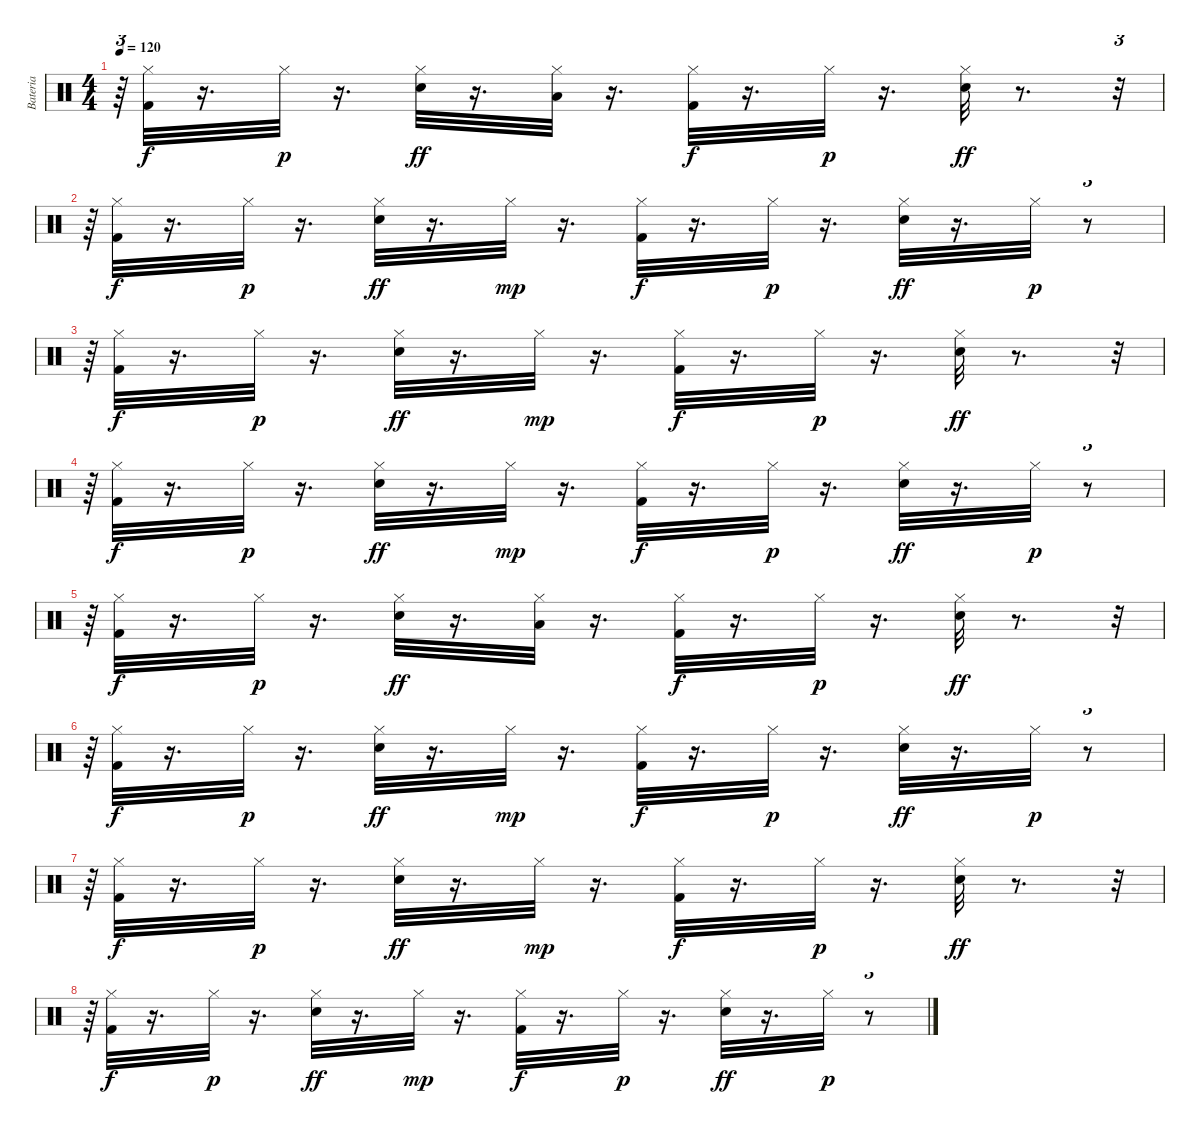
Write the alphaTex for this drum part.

\track ("Bateria" "Bateria") {instrument percussion}
\staff {score}
\articulation defaults
\ts (4 4)
\tempo 120
\clef neutral
\ks c
r.64{tu (3 2) dy p} ("Kick (hit) 2" "Hi-Hat (closed)").32{dy f} r.16{d} "Hi-Hat (closed)".32{dy p} r.16{d} ("Electric Snare (hit)" "Hi-Hat (closed)").32{dy ff} r.16{d} ("Hi-Hat (closed)" "Low Tom (hit)").32 r.16{d} ("Kick (hit) 2" "Hi-Hat (closed)").32{dy f} r.16{d} "Hi-Hat (closed)".32{dy p} r.16{d} ("Electric Snare (hit)" "Hi-Hat (closed)").32{dy ff} r.8{d} r.32{tu (3 2)} |
r.64{tu (3 2)} ("Kick (hit) 2" "Hi-Hat (closed)").32{dy f} r.16{d} "Hi-Hat (closed)".32{dy p} r.16{d} ("Electric Snare (hit)" "Hi-Hat (closed)").32{dy ff} r.16{d} "Hi-Hat (closed)".32{dy mp} r.16{d} ("Kick (hit) 2" "Hi-Hat (closed)").32{dy f} r.16{d} "Hi-Hat (closed)".32{dy p} r.16{d} ("Hi-Hat (closed)" "Electric Snare (hit)").32{dy ff} r.16{d} "Hi-Hat (closed)".32{dy p} r.8{tu (3 2)} |
r.64{tu (3 2)} ("Kick (hit) 2" "Hi-Hat (closed)").32{dy f} r.16{d} "Hi-Hat (closed)".32{dy p} r.16{d} ("Electric Snare (hit)" "Hi-Hat (closed)").32{dy ff} r.16{d} "Hi-Hat (closed)".32{dy mp} r.16{d} ("Kick (hit) 2" "Hi-Hat (closed)").32{dy f} r.16{d} "Hi-Hat (closed)".32{dy p} r.16{d} ("Electric Snare (hit)" "Hi-Hat (closed)").32{dy ff} r.8{d} r.32{tu (3 2)} |
r.64{tu (3 2)} ("Kick (hit) 2" "Hi-Hat (closed)").32{dy f} r.16{d} "Hi-Hat (closed)".32{dy p} r.16{d} ("Electric Snare (hit)" "Hi-Hat (closed)").32{dy ff} r.16{d} "Hi-Hat (closed)".32{dy mp} r.16{d} ("Kick (hit) 2" "Hi-Hat (closed)").32{dy f} r.16{d} "Hi-Hat (closed)".32{dy p} r.16{d} ("Hi-Hat (closed)" "Electric Snare (hit)").32{dy ff} r.16{d} "Hi-Hat (closed)".32{dy p} r.8{tu (3 2)} |
r.64{tu (3 2)} ("Kick (hit) 2" "Hi-Hat (closed)").32{dy f} r.16{d} "Hi-Hat (closed)".32{dy p} r.16{d} ("Electric Snare (hit)" "Hi-Hat (closed)").32{dy ff} r.16{d} ("Hi-Hat (closed)" "Low Tom (hit)").32 r.16{d} ("Kick (hit) 2" "Hi-Hat (closed)").32{dy f} r.16{d} "Hi-Hat (closed)".32{dy p} r.16{d} ("Electric Snare (hit)" "Hi-Hat (closed)").32{dy ff} r.8{d} r.32{tu (3 2)} |
r.64{tu (3 2)} ("Kick (hit) 2" "Hi-Hat (closed)").32{dy f} r.16{d} "Hi-Hat (closed)".32{dy p} r.16{d} ("Electric Snare (hit)" "Hi-Hat (closed)").32{dy ff} r.16{d} "Hi-Hat (closed)".32{dy mp} r.16{d} ("Kick (hit) 2" "Hi-Hat (closed)").32{dy f} r.16{d} "Hi-Hat (closed)".32{dy p} r.16{d} ("Hi-Hat (closed)" "Electric Snare (hit)").32{dy ff} r.16{d} "Hi-Hat (closed)".32{dy p} r.8{tu (3 2)} |
r.64{tu (3 2)} ("Kick (hit) 2" "Hi-Hat (closed)").32{dy f} r.16{d} "Hi-Hat (closed)".32{dy p} r.16{d} ("Electric Snare (hit)" "Hi-Hat (closed)").32{dy ff} r.16{d} "Hi-Hat (closed)".32{dy mp} r.16{d} ("Kick (hit) 2" "Hi-Hat (closed)").32{dy f} r.16{d} "Hi-Hat (closed)".32{dy p} r.16{d} ("Electric Snare (hit)" "Hi-Hat (closed)").32{dy ff} r.8{d} r.32{tu (3 2)} |
r.64{tu (3 2)} ("Kick (hit) 2" "Hi-Hat (closed)").32{dy f} r.16{d} "Hi-Hat (closed)".32{dy p} r.16{d} ("Electric Snare (hit)" "Hi-Hat (closed)").32{dy ff} r.16{d} "Hi-Hat (closed)".32{dy mp} r.16{d} ("Kick (hit) 2" "Hi-Hat (closed)").32{dy f} r.16{d} "Hi-Hat (closed)".32{dy p} r.16{d} ("Hi-Hat (closed)" "Electric Snare (hit)").32{dy ff} r.16{d} "Hi-Hat (closed)".32{dy p} r.8{tu (3 2)}
